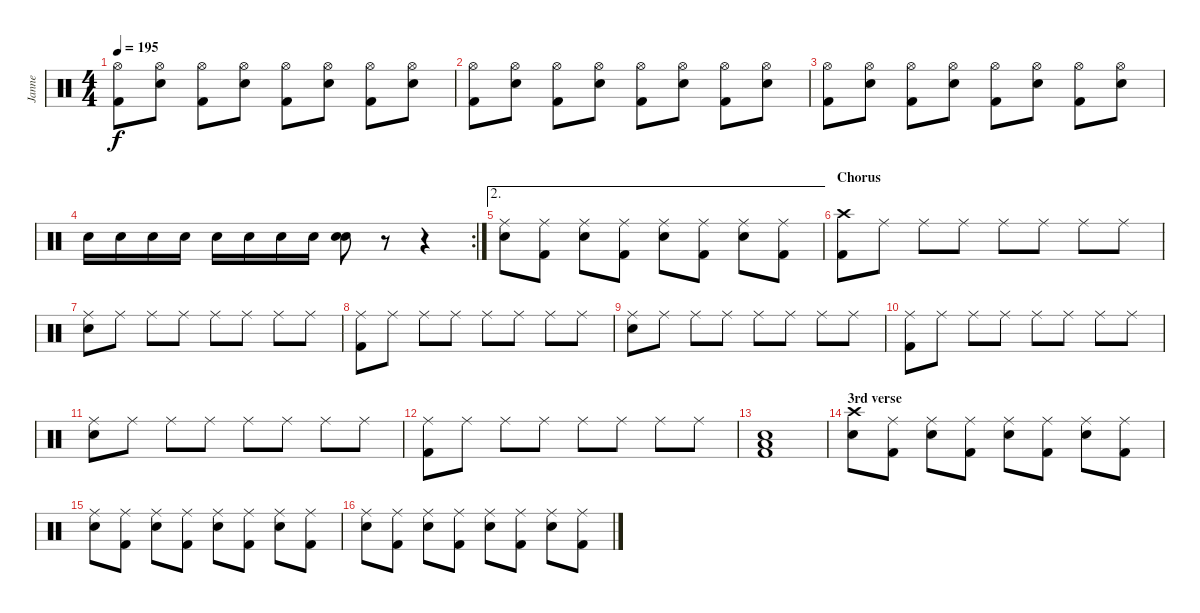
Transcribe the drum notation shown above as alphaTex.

\track ("Janne" "Janne") {instrument percussion}
\staff {score}
\articulation defaults
\ts (4 4)
\tempo 195
\clef neutral
\ks c
("Hi-Hat (open)" "Kick (hit) 2").8{dy f} ("Hi-Hat (open)" "Electric Snare (hit)").8 ("Hi-Hat (open)" "Kick (hit) 2").8 ("Hi-Hat (open)" "Electric Snare (hit)").8 ("Hi-Hat (open)" "Kick (hit) 2").8 ("Hi-Hat (open)" "Electric Snare (hit)").8 ("Hi-Hat (open)" "Kick (hit) 2").8 ("Hi-Hat (open)" "Electric Snare (hit)").8 |
("Hi-Hat (open)" "Kick (hit) 2").8 ("Hi-Hat (open)" "Electric Snare (hit)").8 ("Hi-Hat (open)" "Kick (hit) 2").8 ("Hi-Hat (open)" "Electric Snare (hit)").8 ("Hi-Hat (open)" "Kick (hit) 2").8 ("Hi-Hat (open)" "Electric Snare (hit)").8 ("Hi-Hat (open)" "Kick (hit) 2").8 ("Hi-Hat (open)" "Electric Snare (hit)").8 |
("Hi-Hat (open)" "Kick (hit) 2").8 ("Hi-Hat (open)" "Electric Snare (hit)").8 ("Hi-Hat (open)" "Kick (hit) 2").8 ("Hi-Hat (open)" "Electric Snare (hit)").8 ("Hi-Hat (open)" "Kick (hit) 2").8 ("Hi-Hat (open)" "Electric Snare (hit)").8 ("Hi-Hat (open)" "Kick (hit) 2").8 ("Hi-Hat (open)" "Electric Snare (hit)").8 |
\rc 2 "Electric Snare (hit)".16 "Electric Snare (hit)".16 "Electric Snare (hit)".16 "Electric Snare (hit)".16 "Electric Snare (hit)".16 "Electric Snare (hit)".16 "Electric Snare (hit)".16 "Electric Snare (hit)".16
("Electric Snare (hit)" "Electric Snare (hit)").8 r.8 r.4 |
\ae 2
("Ride (middle)" "Electric Snare (hit)").8 ("Ride (middle)" "Kick (hit) 2").8 ("Ride (middle)" "Electric Snare (hit)").8 ("Ride (middle)" "Kick (hit) 2").8 ("Ride (middle)" "Electric Snare (hit)").8 ("Ride (middle)" "Kick (hit) 2").8 ("Ride (middle)" "Electric Snare (hit)").8 ("Ride (middle)" "Kick (hit) 2").8 |
\section ("" "Chorus")
("Crash high (hit)" "Kick (hit) 2").8 "Ride (middle)".8 "Ride (middle)".8 "Ride (middle)".8 "Ride (middle)".8 "Ride (middle)".8 "Ride (middle)".8 "Ride (middle)".8 |
("Ride (middle)" "Electric Snare (hit)").8 "Ride (middle)".8 "Ride (middle)".8 "Ride (middle)".8 "Ride (middle)".8 "Ride (middle)".8 "Ride (middle)".8 "Ride (middle)".8 |
("Ride (middle)" "Kick (hit) 2").8 "Ride (middle)".8 "Ride (middle)".8 "Ride (middle)".8 "Ride (middle)".8 "Ride (middle)".8 "Ride (middle)".8 "Ride (middle)".8 |
("Ride (middle)" "Electric Snare (hit)").8 "Ride (middle)".8 "Ride (middle)".8 "Ride (middle)".8 "Ride (middle)".8 "Ride (middle)".8 "Ride (middle)".8 "Ride (middle)".8 |
("Ride (middle)" "Kick (hit) 2").8 "Ride (middle)".8 "Ride (middle)".8 "Ride (middle)".8 "Ride (middle)".8 "Ride (middle)".8 "Ride (middle)".8 "Ride (middle)".8 |
("Ride (middle)" "Electric Snare (hit)").8 "Ride (middle)".8 "Ride (middle)".8 "Ride (middle)".8 "Ride (middle)".8 "Ride (middle)".8 "Ride (middle)".8 "Ride (middle)".8 |
("Ride (middle)" "Kick (hit) 2").8 "Ride (middle)".8 "Ride (middle)".8 "Ride (middle)".8 "Ride (middle)".8 "Ride (middle)".8 "Ride (middle)".8 "Ride (middle)".8 |
("Low Floor Tom (hit)" "Electric Snare (hit)" "Kick (hit) 2").1 |
\section ("" "3rd verse")
("Crash high (hit)" "Electric Snare (hit)").8 ("Ride (middle)" "Kick (hit) 2").8 ("Ride (middle)" "Electric Snare (hit)").8 ("Ride (middle)" "Kick (hit) 2").8 ("Ride (middle)" "Electric Snare (hit)").8 ("Ride (middle)" "Kick (hit) 2").8 ("Ride (middle)" "Electric Snare (hit)").8 ("Ride (middle)" "Kick (hit) 2").8 |
("Ride (middle)" "Electric Snare (hit)").8 ("Ride (middle)" "Kick (hit) 2").8 ("Ride (middle)" "Electric Snare (hit)").8 ("Ride (middle)" "Kick (hit) 2").8 ("Ride (middle)" "Electric Snare (hit)").8 ("Ride (middle)" "Kick (hit) 2").8 ("Ride (middle)" "Electric Snare (hit)").8 ("Ride (middle)" "Kick (hit) 2").8 |
("Ride (middle)" "Electric Snare (hit)").8 ("Ride (middle)" "Kick (hit) 2").8 ("Ride (middle)" "Electric Snare (hit)").8 ("Ride (middle)" "Kick (hit) 2").8 ("Ride (middle)" "Electric Snare (hit)").8 ("Ride (middle)" "Kick (hit) 2").8 ("Ride (middle)" "Electric Snare (hit)").8 ("Ride (middle)" "Kick (hit) 2").8
